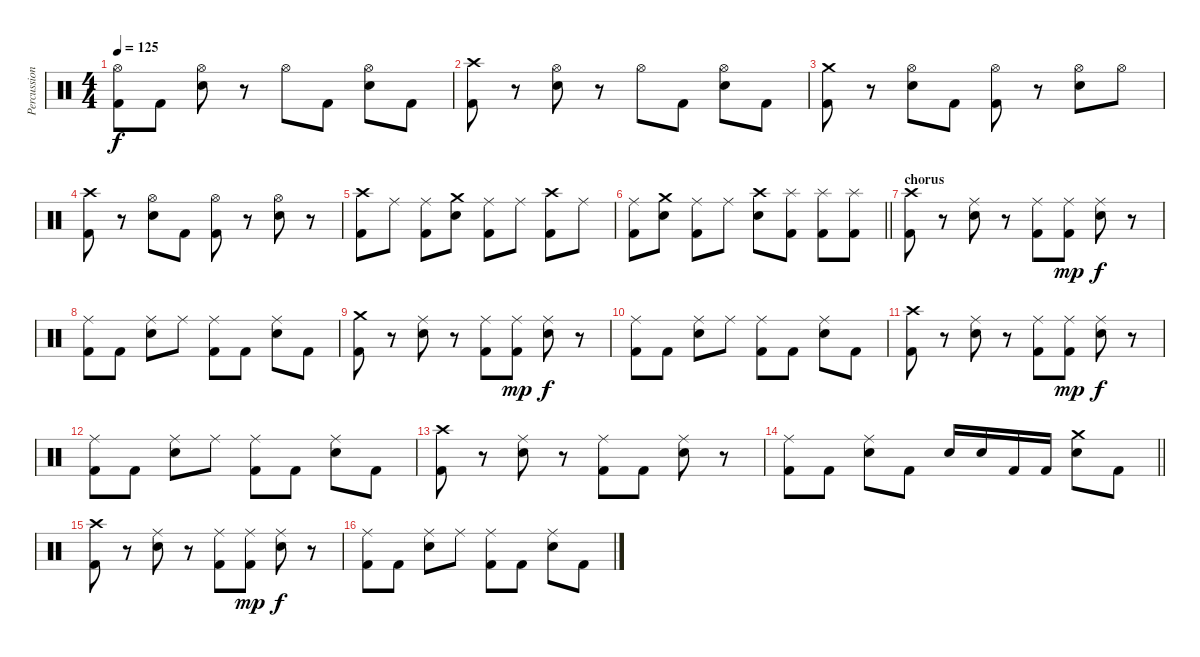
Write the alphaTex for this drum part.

\track ("Percussion" "Percussion") {instrument percussion}
\staff {score}
\articulation defaults
\ts (4 4)
\tempo 125
\clef neutral
\ks c
("Hi-Hat (open)" "Kick (hit) 2").8{dy f} "Kick (hit) 2".8 ("Hi-Hat (open)" "Snare (hit) 2").8 r.8 "Hi-Hat (open)".8 "Kick (hit) 2".8 ("Hi-Hat (open)" "Snare (hit) 2").8 "Kick (hit) 2".8 |
("Crash high (hit)" "Kick (hit) 2").8 r.8 ("Hi-Hat (open)" "Snare (hit) 2").8 r.8 "Hi-Hat (open)".8 "Kick (hit) 2".8 ("Hi-Hat (open)" "Snare (hit) 2").8 "Kick (hit) 2".8 |
("Crash medium (hit)" "Kick (hit) 2").8 r.8 ("Hi-Hat (open)" "Snare (hit) 2").8 "Kick (hit) 2".8 ("Hi-Hat (open)" "Kick (hit) 2").8 r.8 ("Hi-Hat (open)" "Snare (hit) 2").8 "Hi-Hat (open)".8 |
("Crash high (hit)" "Kick (hit) 2").8 r.8 ("Hi-Hat (open)" "Snare (hit) 2").8 "Kick (hit) 2".8 ("Hi-Hat (open)" "Kick (hit) 2").8 r.8 ("Hi-Hat (open)" "Snare (hit) 2").8 r.8 |
("Crash high (hit)" "Kick (hit) 2").8 "Ride (middle)".8 ("Ride (middle)" "Kick (hit) 2").8 ("Crash medium (hit)" "Snare (hit) 2").8 ("Ride (middle)" "Kick (hit) 2").8 "Ride (middle)".8 ("Crash high (hit)" "Kick (hit) 2").8 "Ride (middle)".8 |
\barLineRight lightlight
("Ride (middle)" "Kick (hit) 2").8 ("Crash medium (hit)" "Snare (hit) 2").8 ("Ride (middle)" "Kick (hit) 2").8 "Ride (middle)".8 ("Crash high (hit)" "Snare (hit) 2").8 ("Splash (hit)" "Kick (hit) 2").8 ("Splash (hit)" "Kick (hit) 2").8 ("Splash (hit)" "Kick (hit) 2").8 |
\section ("" "chorus")
("Crash high (hit)" "Kick (hit) 2").8 r.8 ("Ride (middle)" "Snare (hit) 2").8 r.8 ("Ride (middle)" "Kick (hit) 2").8 ("Ride (middle)" "Kick (hit) 2").8{dy mp} ("Ride (middle)" "Snare (hit) 2").8{dy f} r.8 |
("Ride (middle)" "Kick (hit) 2").8 "Kick (hit) 2".8 ("Ride (middle)" "Snare (hit) 2").8 "Ride (middle)".8 ("Ride (middle)" "Kick (hit) 2").8 "Kick (hit) 2".8 ("Ride (middle)" "Snare (hit) 2").8 "Kick (hit) 2".8 |
("Crash medium (hit)" "Kick (hit) 2").8 r.8 ("Ride (middle)" "Snare (hit) 2").8 r.8 ("Ride (middle)" "Kick (hit) 2").8 ("Ride (middle)" "Kick (hit) 2").8{dy mp} ("Ride (middle)" "Snare (hit) 2").8{dy f} r.8 |
("Ride (middle)" "Kick (hit) 2").8 "Kick (hit) 2".8 ("Ride (middle)" "Snare (hit) 2").8 "Ride (middle)".8 ("Ride (middle)" "Kick (hit) 2").8 "Kick (hit) 2".8 ("Ride (middle)" "Snare (hit) 2").8 "Kick (hit) 2".8 |
("Crash high (hit)" "Kick (hit) 2").8 r.8 ("Ride (middle)" "Snare (hit) 2").8 r.8 ("Ride (middle)" "Kick (hit) 2").8 ("Ride (middle)" "Kick (hit) 2").8{dy mp} ("Ride (middle)" "Snare (hit) 2").8{dy f} r.8 |
("Ride (middle)" "Kick (hit) 2").8 "Kick (hit) 2".8 ("Ride (middle)" "Snare (hit) 2").8 "Ride (middle)".8 ("Ride (middle)" "Kick (hit) 2").8 "Kick (hit) 2".8 ("Ride (middle)" "Snare (hit) 2").8 "Kick (hit) 2".8 |
("Crash high (hit)" "Kick (hit) 2").8 r.8 ("Ride (middle)" "Snare (hit) 2").8 r.8 ("Ride (middle)" "Kick (hit) 2").8 "Kick (hit) 2".8 ("Ride (middle)" "Snare (hit) 2").8 r.8 |
\barLineRight lightlight
("Ride (middle)" "Kick (hit) 2").8 "Kick (hit) 2".8 ("Ride (middle)" "Snare (hit) 2").8 "Kick (hit) 2".8 "Snare (hit) 2".16 "Snare (hit) 2".16 "Kick (hit) 2".16 "Kick (hit) 2".16 ("Crash medium (hit)" "Snare (hit) 2").8 "Kick (hit) 2".8 |
("Crash high (hit)" "Kick (hit) 2").8 r.8 ("Ride (middle)" "Snare (hit) 2").8 r.8 ("Ride (middle)" "Kick (hit) 2").8 ("Ride (middle)" "Kick (hit) 2").8{dy mp} ("Ride (middle)" "Snare (hit) 2").8{dy f} r.8 |
("Ride (middle)" "Kick (hit) 2").8 "Kick (hit) 2".8 ("Ride (middle)" "Snare (hit) 2").8 "Ride (middle)".8 ("Ride (middle)" "Kick (hit) 2").8 "Kick (hit) 2".8 ("Ride (middle)" "Snare (hit) 2").8 "Kick (hit) 2".8
